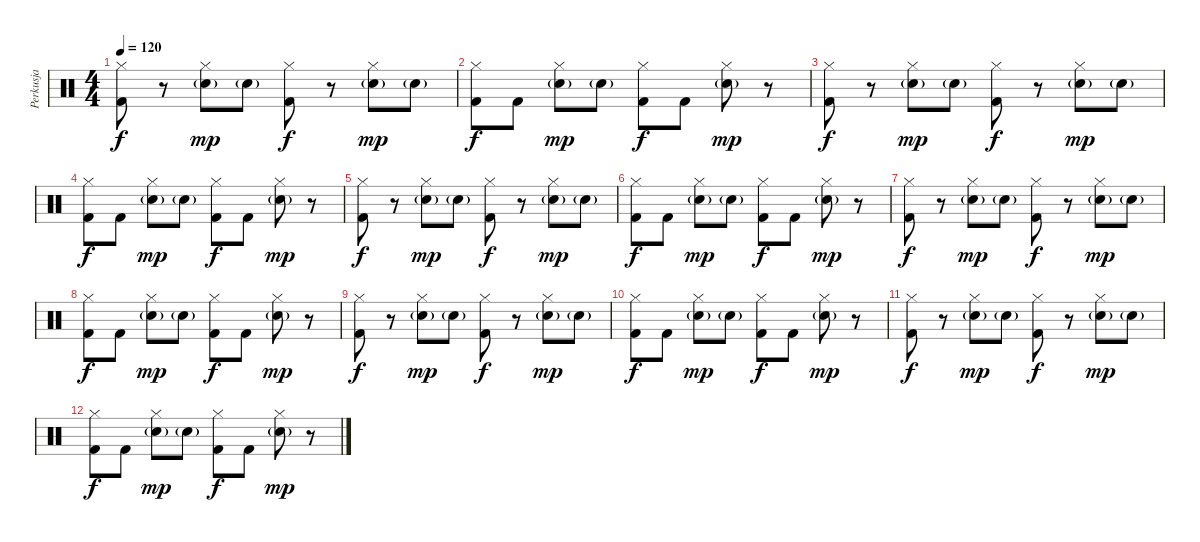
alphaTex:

\track ("Perkusja" "Perkusja") {instrument percussion}
\staff {score}
\articulation defaults
\ts (4 4)
\tempo 120
\clef neutral
\ks c
("Hi-Hat (closed)" "Kick (hit) 2").8{dy f} r.8 ("Hi-Hat (closed)" "Snare (hit) 2"{g}).8{dy mp} "Snare (hit) 2"{g}.8 ("Hi-Hat (closed)" "Kick (hit) 2").8{dy f} r.8 ("Hi-Hat (closed)" "Snare (hit) 2"{g}).8{dy mp} "Snare (hit) 2"{g}.8 |
("Hi-Hat (closed)" "Kick (hit) 2").8{dy f} "Kick (hit) 2".8 ("Hi-Hat (closed)" "Snare (hit) 2"{g}).8{dy mp} "Snare (hit) 2"{g}.8 ("Hi-Hat (closed)" "Kick (hit) 2").8{dy f} "Kick (hit) 2".8 ("Hi-Hat (closed)" "Snare (hit) 2"{g}).8{dy mp} r.8 |
("Hi-Hat (closed)" "Kick (hit) 2").8{dy f} r.8 ("Hi-Hat (closed)" "Snare (hit) 2"{g}).8{dy mp} "Snare (hit) 2"{g}.8 ("Hi-Hat (closed)" "Kick (hit) 2").8{dy f} r.8 ("Hi-Hat (closed)" "Snare (hit) 2"{g}).8{dy mp} "Snare (hit) 2"{g}.8 |
("Hi-Hat (closed)" "Kick (hit) 2").8{dy f} "Kick (hit) 2".8 ("Hi-Hat (closed)" "Snare (hit) 2"{g}).8{dy mp} "Snare (hit) 2"{g}.8 ("Hi-Hat (closed)" "Kick (hit) 2").8{dy f} "Kick (hit) 2".8 ("Hi-Hat (closed)" "Snare (hit) 2"{g}).8{dy mp} r.8 |
("Hi-Hat (closed)" "Kick (hit) 2").8{dy f} r.8 ("Hi-Hat (closed)" "Snare (hit) 2"{g}).8{dy mp} "Snare (hit) 2"{g}.8 ("Hi-Hat (closed)" "Kick (hit) 2").8{dy f} r.8 ("Hi-Hat (closed)" "Snare (hit) 2"{g}).8{dy mp} "Snare (hit) 2"{g}.8 |
("Hi-Hat (closed)" "Kick (hit) 2").8{dy f} "Kick (hit) 2".8 ("Hi-Hat (closed)" "Snare (hit) 2"{g}).8{dy mp} "Snare (hit) 2"{g}.8 ("Hi-Hat (closed)" "Kick (hit) 2").8{dy f} "Kick (hit) 2".8 ("Hi-Hat (closed)" "Snare (hit) 2"{g}).8{dy mp} r.8 |
("Hi-Hat (closed)" "Kick (hit) 2").8{dy f} r.8 ("Hi-Hat (closed)" "Snare (hit) 2"{g}).8{dy mp} "Snare (hit) 2"{g}.8 ("Hi-Hat (closed)" "Kick (hit) 2").8{dy f} r.8 ("Hi-Hat (closed)" "Snare (hit) 2"{g}).8{dy mp} "Snare (hit) 2"{g}.8 |
("Hi-Hat (closed)" "Kick (hit) 2").8{dy f} "Kick (hit) 2".8 ("Hi-Hat (closed)" "Snare (hit) 2"{g}).8{dy mp} "Snare (hit) 2"{g}.8 ("Hi-Hat (closed)" "Kick (hit) 2").8{dy f} "Kick (hit) 2".8 ("Hi-Hat (closed)" "Snare (hit) 2"{g}).8{dy mp} r.8 |
("Hi-Hat (closed)" "Kick (hit) 2").8{dy f} r.8 ("Hi-Hat (closed)" "Snare (hit) 2"{g}).8{dy mp} "Snare (hit) 2"{g}.8 ("Hi-Hat (closed)" "Kick (hit) 2").8{dy f} r.8 ("Hi-Hat (closed)" "Snare (hit) 2"{g}).8{dy mp} "Snare (hit) 2"{g}.8 |
("Hi-Hat (closed)" "Kick (hit) 2").8{dy f} "Kick (hit) 2".8 ("Hi-Hat (closed)" "Snare (hit) 2"{g}).8{dy mp} "Snare (hit) 2"{g}.8 ("Hi-Hat (closed)" "Kick (hit) 2").8{dy f} "Kick (hit) 2".8 ("Hi-Hat (closed)" "Snare (hit) 2"{g}).8{dy mp} r.8 |
("Hi-Hat (closed)" "Kick (hit) 2").8{dy f} r.8 ("Hi-Hat (closed)" "Snare (hit) 2"{g}).8{dy mp} "Snare (hit) 2"{g}.8 ("Hi-Hat (closed)" "Kick (hit) 2").8{dy f} r.8 ("Hi-Hat (closed)" "Snare (hit) 2"{g}).8{dy mp} "Snare (hit) 2"{g}.8 |
("Hi-Hat (closed)" "Kick (hit) 2").8{dy f} "Kick (hit) 2".8 ("Hi-Hat (closed)" "Snare (hit) 2"{g}).8{dy mp} "Snare (hit) 2"{g}.8 ("Hi-Hat (closed)" "Kick (hit) 2").8{dy f} "Kick (hit) 2".8 ("Hi-Hat (closed)" "Snare (hit) 2"{g}).8{dy mp} r.8
